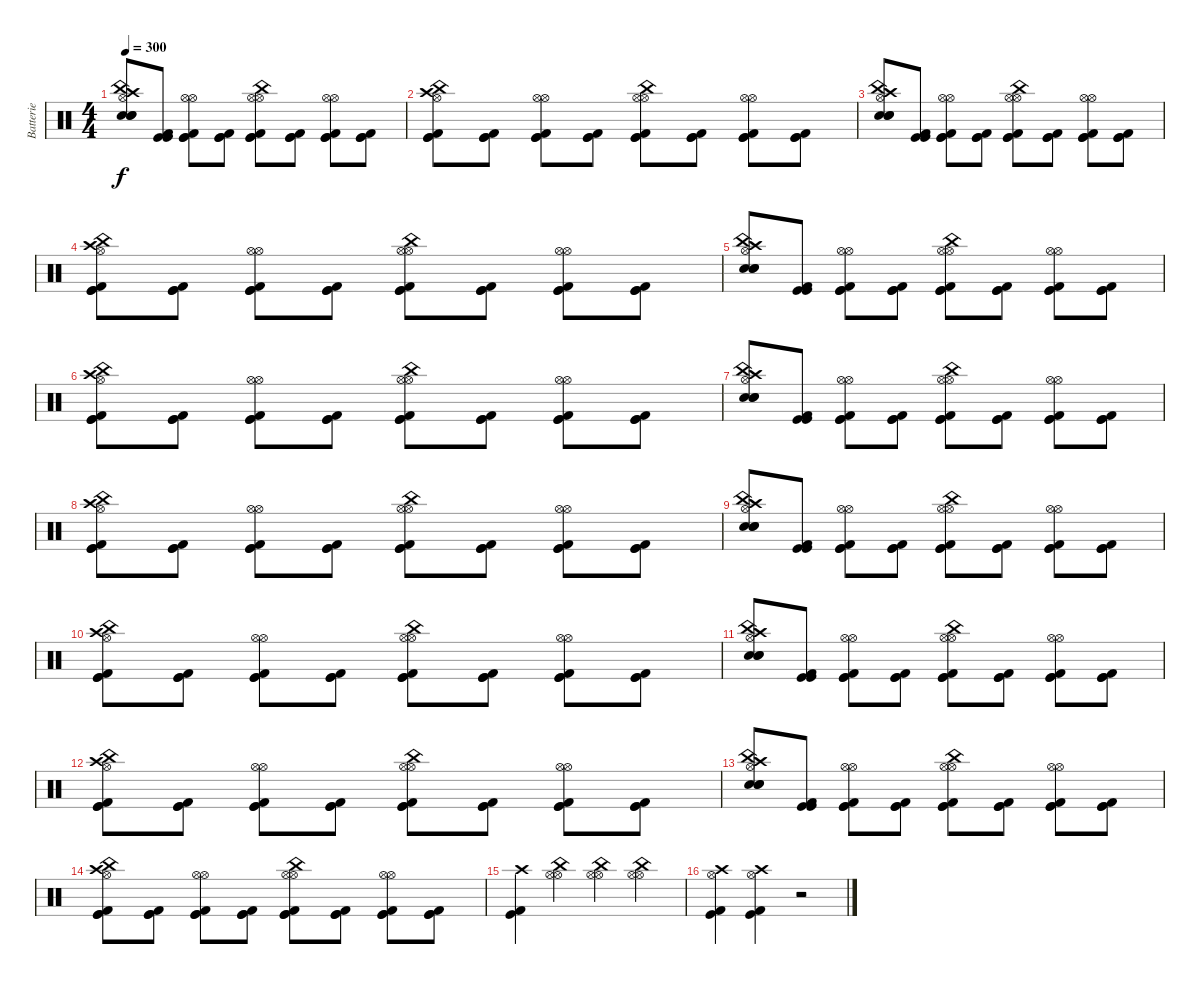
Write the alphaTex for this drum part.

\track ("Batterie" "Batterie") {instrument percussion}
\staff {score}
\articulation defaults
\ts (4 4)
\tempo 300
\clef neutral
\ks c
("Electric Snare (hit)" "Hi-Hat (open)" "Crash high (hit)" "China (hit)" "Snare (hit) 2" "Snare (hit) 2").8{dy f} ("Kick (hit)" "Kick (hit) 2" "Kick (hit)").8 ("Kick (hit)" "Hi-Hat (open)" "Hi-Hat (open)" "Kick (hit) 2" "Kick (hit)").8 ("Kick (hit)" "Kick (hit) 2" "Kick (hit)").8 ("Kick (hit)" "Hi-Hat (open)" "China (hit)" "Hi-Hat (open)" "Kick (hit) 2" "Kick (hit)").8 ("Kick (hit)" "Kick (hit)" "Kick (hit) 2").8 ("Kick (hit)" "Hi-Hat (open)" "Hi-Hat (open)" "Kick (hit) 2" "Kick (hit)").8 ("Kick (hit)" "Kick (hit)" "Kick (hit) 2").8 |
("Kick (hit)" "Hi-Hat (open)" "Crash high (hit)" "China (hit)" "Kick (hit)" "Kick (hit) 2").8 ("Kick (hit)" "Kick (hit) 2" "Kick (hit)").8 ("Kick (hit)" "Hi-Hat (open)" "Hi-Hat (open)" "Kick (hit) 2" "Kick (hit)").8 ("Kick (hit)" "Kick (hit) 2" "Kick (hit)").8 ("Kick (hit)" "Hi-Hat (open)" "China (hit)" "Hi-Hat (open)" "Kick (hit) 2" "Kick (hit)").8 ("Kick (hit)" "Kick (hit)" "Kick (hit) 2").8 ("Kick (hit)" "Hi-Hat (open)" "Hi-Hat (open)" "Kick (hit) 2" "Kick (hit)").8 ("Kick (hit)" "Kick (hit)" "Kick (hit) 2").8 |
("Electric Snare (hit)" "Hi-Hat (open)" "Crash high (hit)" "China (hit)" "Snare (hit) 2" "Snare (hit) 2").8 ("Kick (hit)" "Kick (hit) 2" "Kick (hit)").8 ("Kick (hit)" "Hi-Hat (open)" "Hi-Hat (open)" "Kick (hit) 2" "Kick (hit)").8 ("Kick (hit)" "Kick (hit) 2" "Kick (hit)").8 ("Kick (hit)" "Hi-Hat (open)" "China (hit)" "Hi-Hat (open)" "Kick (hit) 2" "Kick (hit)").8 ("Kick (hit)" "Kick (hit)" "Kick (hit) 2").8 ("Kick (hit)" "Hi-Hat (open)" "Hi-Hat (open)" "Kick (hit) 2" "Kick (hit)").8 ("Kick (hit)" "Kick (hit)" "Kick (hit) 2").8 |
("Kick (hit)" "Hi-Hat (open)" "Crash high (hit)" "China (hit)" "Kick (hit)" "Kick (hit) 2").8 ("Kick (hit)" "Kick (hit) 2" "Kick (hit)").8 ("Kick (hit)" "Hi-Hat (open)" "Hi-Hat (open)" "Kick (hit) 2" "Kick (hit)").8 ("Kick (hit)" "Kick (hit) 2" "Kick (hit)").8 ("Kick (hit)" "Hi-Hat (open)" "China (hit)" "Hi-Hat (open)" "Kick (hit) 2" "Kick (hit)").8 ("Kick (hit)" "Kick (hit)" "Kick (hit) 2").8 ("Kick (hit)" "Hi-Hat (open)" "Hi-Hat (open)" "Kick (hit) 2" "Kick (hit)").8 ("Kick (hit)" "Kick (hit)" "Kick (hit) 2").8 |
("Electric Snare (hit)" "Hi-Hat (open)" "Crash high (hit)" "China (hit)" "Snare (hit) 2" "Snare (hit) 2").8 ("Kick (hit)" "Kick (hit) 2" "Kick (hit)").8 ("Kick (hit)" "Hi-Hat (open)" "Hi-Hat (open)" "Kick (hit) 2" "Kick (hit)").8 ("Kick (hit)" "Kick (hit) 2" "Kick (hit)").8 ("Kick (hit)" "Hi-Hat (open)" "China (hit)" "Hi-Hat (open)" "Kick (hit) 2" "Kick (hit)").8 ("Kick (hit)" "Kick (hit)" "Kick (hit) 2").8 ("Kick (hit)" "Hi-Hat (open)" "Hi-Hat (open)" "Kick (hit) 2" "Kick (hit)").8 ("Kick (hit)" "Kick (hit)" "Kick (hit) 2").8 |
("Kick (hit)" "Hi-Hat (open)" "Crash high (hit)" "China (hit)" "Kick (hit)" "Kick (hit) 2").8 ("Kick (hit)" "Kick (hit) 2" "Kick (hit)").8 ("Kick (hit)" "Hi-Hat (open)" "Hi-Hat (open)" "Kick (hit) 2" "Kick (hit)").8 ("Kick (hit)" "Kick (hit) 2" "Kick (hit)").8 ("Kick (hit)" "Hi-Hat (open)" "China (hit)" "Hi-Hat (open)" "Kick (hit) 2" "Kick (hit)").8 ("Kick (hit)" "Kick (hit)" "Kick (hit) 2").8 ("Kick (hit)" "Hi-Hat (open)" "Hi-Hat (open)" "Kick (hit) 2" "Kick (hit)").8 ("Kick (hit)" "Kick (hit)" "Kick (hit) 2").8 |
("Electric Snare (hit)" "Hi-Hat (open)" "Crash high (hit)" "China (hit)" "Snare (hit) 2" "Snare (hit) 2").8 ("Kick (hit)" "Kick (hit) 2" "Kick (hit)").8 ("Kick (hit)" "Hi-Hat (open)" "Hi-Hat (open)" "Kick (hit) 2" "Kick (hit)").8 ("Kick (hit)" "Kick (hit) 2" "Kick (hit)").8 ("Kick (hit)" "Hi-Hat (open)" "China (hit)" "Hi-Hat (open)" "Kick (hit) 2" "Kick (hit)").8 ("Kick (hit)" "Kick (hit)" "Kick (hit) 2").8 ("Kick (hit)" "Hi-Hat (open)" "Hi-Hat (open)" "Kick (hit) 2" "Kick (hit)").8 ("Kick (hit)" "Kick (hit)" "Kick (hit) 2").8 |
("Kick (hit)" "Hi-Hat (open)" "Crash high (hit)" "China (hit)" "Kick (hit)" "Kick (hit) 2").8 ("Kick (hit)" "Kick (hit) 2" "Kick (hit)").8 ("Kick (hit)" "Hi-Hat (open)" "Hi-Hat (open)" "Kick (hit) 2" "Kick (hit)").8 ("Kick (hit)" "Kick (hit) 2" "Kick (hit)").8 ("Kick (hit)" "Hi-Hat (open)" "China (hit)" "Hi-Hat (open)" "Kick (hit) 2" "Kick (hit)").8 ("Kick (hit)" "Kick (hit)" "Kick (hit) 2").8 ("Kick (hit)" "Hi-Hat (open)" "Hi-Hat (open)" "Kick (hit) 2" "Kick (hit)").8 ("Kick (hit)" "Kick (hit)" "Kick (hit) 2").8 |
("Electric Snare (hit)" "Hi-Hat (open)" "Crash high (hit)" "China (hit)" "Snare (hit) 2" "Snare (hit) 2").8 ("Kick (hit)" "Kick (hit) 2" "Kick (hit)").8 ("Kick (hit)" "Hi-Hat (open)" "Hi-Hat (open)" "Kick (hit) 2" "Kick (hit)").8 ("Kick (hit)" "Kick (hit) 2" "Kick (hit)").8 ("Kick (hit)" "Hi-Hat (open)" "China (hit)" "Hi-Hat (open)" "Kick (hit) 2" "Kick (hit)").8 ("Kick (hit)" "Kick (hit)" "Kick (hit) 2").8 ("Kick (hit)" "Hi-Hat (open)" "Hi-Hat (open)" "Kick (hit) 2" "Kick (hit)").8 ("Kick (hit)" "Kick (hit)" "Kick (hit) 2").8 |
("Kick (hit)" "Hi-Hat (open)" "Crash high (hit)" "China (hit)" "Kick (hit)" "Kick (hit) 2").8 ("Kick (hit)" "Kick (hit) 2" "Kick (hit)").8 ("Kick (hit)" "Hi-Hat (open)" "Hi-Hat (open)" "Kick (hit) 2" "Kick (hit)").8 ("Kick (hit)" "Kick (hit) 2" "Kick (hit)").8 ("Kick (hit)" "Hi-Hat (open)" "China (hit)" "Hi-Hat (open)" "Kick (hit) 2" "Kick (hit)").8 ("Kick (hit)" "Kick (hit)" "Kick (hit) 2").8 ("Kick (hit)" "Hi-Hat (open)" "Hi-Hat (open)" "Kick (hit) 2" "Kick (hit)").8 ("Kick (hit)" "Kick (hit)" "Kick (hit) 2").8 |
("Electric Snare (hit)" "Hi-Hat (open)" "Crash high (hit)" "China (hit)" "Snare (hit) 2" "Snare (hit) 2").8 ("Kick (hit)" "Kick (hit) 2" "Kick (hit)").8 ("Kick (hit)" "Hi-Hat (open)" "Hi-Hat (open)" "Kick (hit) 2" "Kick (hit)").8 ("Kick (hit)" "Kick (hit) 2" "Kick (hit)").8 ("Kick (hit)" "Hi-Hat (open)" "China (hit)" "Hi-Hat (open)" "Kick (hit) 2" "Kick (hit)").8 ("Kick (hit)" "Kick (hit)" "Kick (hit) 2").8 ("Kick (hit)" "Hi-Hat (open)" "Hi-Hat (open)" "Kick (hit) 2" "Kick (hit)").8 ("Kick (hit)" "Kick (hit)" "Kick (hit) 2").8 |
("Kick (hit)" "Hi-Hat (open)" "Crash high (hit)" "China (hit)" "Kick (hit)" "Kick (hit) 2").8 ("Kick (hit)" "Kick (hit) 2" "Kick (hit)").8 ("Kick (hit)" "Hi-Hat (open)" "Hi-Hat (open)" "Kick (hit) 2" "Kick (hit)").8 ("Kick (hit)" "Kick (hit) 2" "Kick (hit)").8 ("Kick (hit)" "Hi-Hat (open)" "China (hit)" "Hi-Hat (open)" "Kick (hit) 2" "Kick (hit)").8 ("Kick (hit)" "Kick (hit)" "Kick (hit) 2").8 ("Kick (hit)" "Hi-Hat (open)" "Hi-Hat (open)" "Kick (hit) 2" "Kick (hit)").8 ("Kick (hit)" "Kick (hit)" "Kick (hit) 2").8 |
("Electric Snare (hit)" "Hi-Hat (open)" "Crash high (hit)" "China (hit)" "Snare (hit) 2" "Snare (hit) 2").8 ("Kick (hit)" "Kick (hit) 2" "Kick (hit)").8 ("Kick (hit)" "Hi-Hat (open)" "Hi-Hat (open)" "Kick (hit) 2" "Kick (hit)").8 ("Kick (hit)" "Kick (hit) 2" "Kick (hit)").8 ("Kick (hit)" "Hi-Hat (open)" "China (hit)" "Hi-Hat (open)" "Kick (hit) 2" "Kick (hit)").8 ("Kick (hit)" "Kick (hit)" "Kick (hit) 2").8 ("Kick (hit)" "Hi-Hat (open)" "Hi-Hat (open)" "Kick (hit) 2" "Kick (hit)").8 ("Kick (hit)" "Kick (hit)" "Kick (hit) 2").8 |
("Kick (hit)" "Hi-Hat (open)" "Crash high (hit)" "China (hit)" "Kick (hit)" "Kick (hit) 2").8 ("Kick (hit)" "Kick (hit) 2" "Kick (hit)").8 ("Kick (hit)" "Hi-Hat (open)" "Hi-Hat (open)" "Kick (hit) 2" "Kick (hit)").8 ("Kick (hit)" "Kick (hit) 2" "Kick (hit)").8 ("Kick (hit)" "Hi-Hat (open)" "China (hit)" "Hi-Hat (open)" "Kick (hit) 2" "Kick (hit)").8 ("Kick (hit)" "Kick (hit)" "Kick (hit) 2").8 ("Kick (hit)" "Hi-Hat (open)" "Hi-Hat (open)" "Kick (hit) 2" "Kick (hit)").8 ("Kick (hit)" "Kick (hit)" "Kick (hit) 2").8 |
("Crash high (hit)" "Kick (hit)" "Kick (hit) 2").4 ("Hi-Hat (open)" "Hi-Hat (open)" "China (hit)").4 ("Hi-Hat (open)" "Hi-Hat (open)" "China (hit)").4 ("Hi-Hat (open)" "Hi-Hat (open)" "China (hit)").4 |
("Hi-Hat (open)" "Crash high (hit)" "Kick (hit)" "Kick (hit) 2").4 ("Hi-Hat (open)" "Crash high (hit)" "Kick (hit)" "Kick (hit) 2").4 r.2
